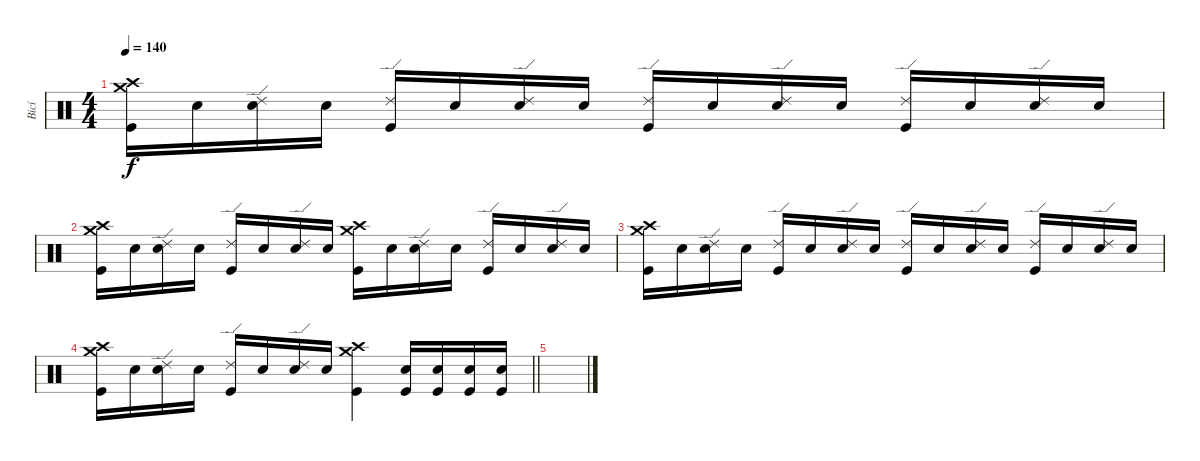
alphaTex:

\track ("Bicí" "Bicí") {instrument percussion}
\staff {score}
\articulation defaults
\ts (4 4)
\tempo 140
\clef neutral
\ks c
("Crash high (hit)" "Crash medium (hit)" "Kick (hit)").16{dy f} "Snare (hit)".16 ("Ride (edge) 2" "Electric Snare (hit)").16 "Snare (hit)".16 ("Ride (edge) 2" "Kick (hit)").16 "Snare (hit)".16 ("Ride (edge) 2" "Electric Snare (hit)").16 "Snare (hit)".16 ("Ride (edge) 2" "Kick (hit)").16 "Snare (hit)".16 ("Ride (edge) 2" "Electric Snare (hit)").16 "Snare (hit)".16 ("Ride (edge) 2" "Kick (hit)").16 "Snare (hit)".16 ("Ride (edge) 2" "Electric Snare (hit)").16 "Snare (hit)".16 |
("Crash high (hit)" "Crash medium (hit)" "Kick (hit)").16 "Snare (hit)".16 ("Ride (edge) 2" "Electric Snare (hit)").16 "Snare (hit)".16 ("Ride (edge) 2" "Kick (hit)").16 "Snare (hit)".16 ("Ride (edge) 2" "Electric Snare (hit)").16 "Snare (hit)".16 ("Crash high (hit)" "Crash medium (hit)" "Kick (hit)").16 "Snare (hit)".16 ("Ride (edge) 2" "Electric Snare (hit)").16 "Snare (hit)".16 ("Ride (edge) 2" "Kick (hit)").16 "Snare (hit)".16 ("Ride (edge) 2" "Electric Snare (hit)").16 "Snare (hit)".16 |
("Crash high (hit)" "Crash medium (hit)" "Kick (hit)").16 "Snare (hit)".16 ("Ride (edge) 2" "Electric Snare (hit)").16 "Snare (hit)".16 ("Ride (edge) 2" "Kick (hit)").16 "Snare (hit)".16 ("Ride (edge) 2" "Electric Snare (hit)").16 "Snare (hit)".16 ("Ride (edge) 2" "Kick (hit)").16 "Snare (hit)".16 ("Ride (edge) 2" "Electric Snare (hit)").16 "Snare (hit)".16 ("Ride (edge) 2" "Kick (hit)").16 "Snare (hit)".16 ("Ride (edge) 2" "Electric Snare (hit)").16 "Snare (hit)".16 |
\barLineRight lightlight
("Crash high (hit)" "Crash medium (hit)" "Kick (hit)").16 "Snare (hit)".16 ("Ride (edge) 2" "Electric Snare (hit)").16 "Snare (hit)".16 ("Ride (edge) 2" "Kick (hit)").16 "Snare (hit)".16 ("Ride (edge) 2" "Electric Snare (hit)").16 "Snare (hit)".16 ("Crash high (hit)" "Crash medium (hit)" "Kick (hit)").4 ("Kick (hit)" "Electric Snare (hit)").16 ("Kick (hit)" "Electric Snare (hit)").16 ("Kick (hit)" "Electric Snare (hit)").16 ("Kick (hit)" "Electric Snare (hit)").16 |
\section ("" "")
